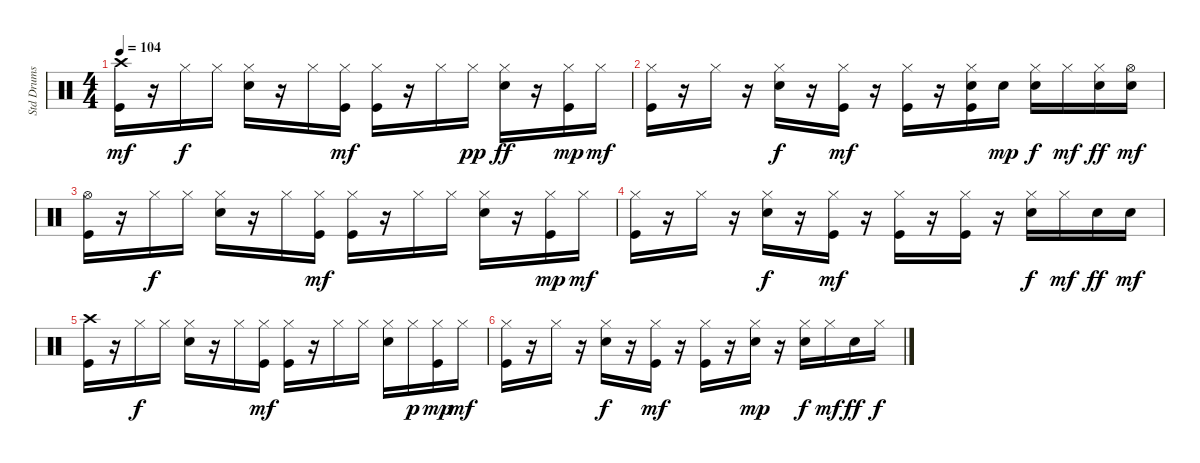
\track ("Std Drums" "Std Drums") {instrument percussion}
\staff {score}
\articulation defaults
\ts (4 4)
\tempo 104
\clef neutral
\ks c
("Kick (hit)" "Crash high (hit)").16{dy mf volume 8} r.16 "Hi-Hat (closed)".16{dy f volume 7} "Hi-Hat (closed)".16{volume 7} ("Snare (hit) 2" "Hi-Hat (closed)").16 r.16 "Hi-Hat (closed)".16{volume 7} ("Hi-Hat (closed)" "Kick (hit)").16{dy mf volume 7} ("Hi-Hat (closed)" "Kick (hit)").16{volume 7} r.16 "Hi-Hat (closed)".16{volume 7} "Hi-Hat (closed)".16{dy pp} ("Snare (hit) 2" "Hi-Hat (closed)").16{dy ff volume 6} r.16 ("Kick (hit)" "Hi-Hat (closed)").16{dy mp volume 6} "Hi-Hat (closed)".16{dy mf volume 6} |
("Kick (hit)" "Hi-Hat (closed)").16 r.16 "Hi-Hat (closed)".16{volume 6} r.16 ("Snare (hit) 2" "Hi-Hat (closed)").16{dy f volume 6} r.16 ("Kick (hit)" "Hi-Hat (closed)").16{dy mf volume 6} r.16 ("Kick (hit)" "Hi-Hat (closed)").16{volume 6} r.16 ("Kick (hit)" "Snare (hit) 2" "Hi-Hat (closed)").16{volume 6} "Snare (hit) 2".16{dy mp} ("Hi-Hat (closed)" "Snare (hit) 2").16{dy f volume 5} "Hi-Hat (closed)".16{dy mf} ("Snare (hit) 2" "Hi-Hat (closed)").16{dy ff volume 5} ("Snare (hit) 2" "Hi-Hat (open)").16{dy mf volume 5} |
("Kick (hit)" "Hi-Hat (open)").16 r.16 "Hi-Hat (closed)".16{dy f volume 5} "Hi-Hat (closed)".16{volume 5} ("Hi-Hat (closed)" "Snare (hit) 2").16 r.16 "Hi-Hat (closed)".16{volume 4} ("Hi-Hat (closed)" "Kick (hit)").16{dy mf} ("Hi-Hat (closed)" "Kick (hit)").16{volume 4} r.16 "Hi-Hat (closed)".16{volume 4} "Hi-Hat (closed)".16 ("Hi-Hat (closed)" "Snare (hit) 2").16{volume 4} r.16 ("Kick (hit)" "Hi-Hat (closed)").16{dy mp volume 4} "Hi-Hat (closed)".16{dy mf volume 4} |
("Hi-Hat (closed)" "Kick (hit)").16 r.16 "Hi-Hat (closed)".16{volume 4} r.16 ("Snare (hit) 2" "Hi-Hat (closed)").16{dy f volume 3} r.16 ("Kick (hit)" "Hi-Hat (closed)").16{dy mf volume 3} r.16 ("Kick (hit)" "Hi-Hat (closed)").16{volume 3} r.16 ("Hi-Hat (closed)" "Kick (hit)").16{volume 3} r.16 ("Hi-Hat (closed)" "Snare (hit) 2").16{dy f volume 3} "Hi-Hat (closed)".16{dy mf volume 3} "Snare (hit) 2".16{dy ff} "Snare (hit) 2".16{dy mf volume 2} |
("Kick (hit)" "Crash high (hit)").16 r.16 "Hi-Hat (closed)".16{dy f volume 2} "Hi-Hat (closed)".16 ("Snare (hit) 2" "Hi-Hat (closed)").16{volume 2} r.16 "Hi-Hat (closed)".16{volume 2} ("Kick (hit)" "Hi-Hat (closed)").16{dy mf} ("Hi-Hat (closed)" "Kick (hit)").16{volume 2} r.16 "Hi-Hat (closed)".16{volume 2} "Hi-Hat (closed)".16{volume 2} ("Hi-Hat (closed)" "Snare (hit) 2").16 "Hi-Hat (closed)".16{dy p volume 2} ("Kick (hit)" "Hi-Hat (closed)").16{dy mp} "Hi-Hat (closed)".16{dy mf volume 1} |
("Kick (hit)" "Hi-Hat (closed)").16 r.16 "Hi-Hat (closed)".16{volume 1} r.16 ("Hi-Hat (closed)" "Snare (hit) 2").16{dy f volume 1} r.16 ("Kick (hit)" "Hi-Hat (closed)").16{dy mf volume 1} r.16 ("Hi-Hat (closed)" "Kick (hit)").16{volume 1} r.16 ("Hi-Hat (closed)" "Snare (hit) 2").16{dy mp volume 0} r.16 ("Hi-Hat (closed)" "Snare (hit) 2").16{dy f volume 0} "Hi-Hat (closed)".16{dy mf volume 0} "Snare (hit) 2".16{dy ff} "Hi-Hat (closed)".16{dy f volume 0}
